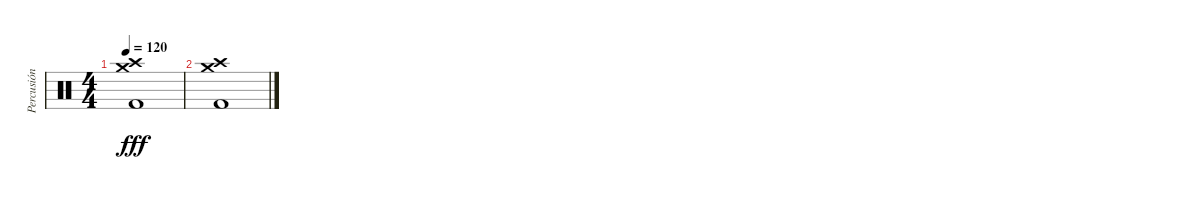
\track ("Percusión" "Percusión") {instrument percussion}
\staff {score}
\articulation defaults
\ts (4 4)
\tempo 120
\clef neutral
\ks c
("Crash medium (hit)" "Crash high (hit)" "Kick (hit) 2").1{dy fff} |
("Crash medium (hit)" "Crash high (hit)" "Kick (hit) 2").1
